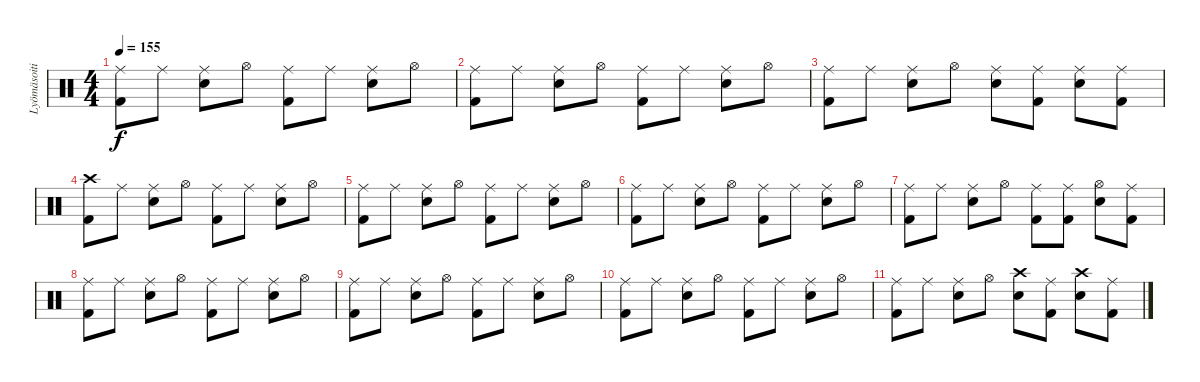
\track ("Lyömäsoitin" "Lyömäsoiti") {instrument percussion}
\staff {score}
\articulation defaults
\ts (4 4)
\tempo 155
\clef neutral
\ks c
("Ride (middle)" "Kick (hit) 2").8{dy f} "Ride (middle)".8 ("Ride (middle)" "Snare (hit) 2").8 "Hi-Hat (open)".8 ("Ride (middle)" "Kick (hit) 2").8 "Ride (middle)".8 ("Ride (middle)" "Snare (hit) 2").8 "Hi-Hat (open)".8 |
("Ride (middle)" "Kick (hit) 2").8 "Ride (middle)".8 ("Ride (middle)" "Snare (hit) 2").8 "Hi-Hat (open)".8 ("Ride (middle)" "Kick (hit) 2").8 "Ride (middle)".8 ("Ride (middle)" "Snare (hit) 2").8 "Hi-Hat (open)".8 |
("Ride (middle)" "Kick (hit) 2").8 "Ride (middle)".8 ("Ride (middle)" "Snare (hit) 2").8 "Hi-Hat (open)".8 ("Ride (middle)" "Snare (hit) 2").8 ("Ride (middle)" "Kick (hit) 2").8 ("Ride (middle)" "Snare (hit) 2").8 ("Ride (middle)" "Kick (hit) 2").8 |
("Crash high (hit)" "Kick (hit) 2").8 "Ride (middle)".8 ("Ride (middle)" "Snare (hit) 2").8 "Hi-Hat (open)".8 ("Ride (middle)" "Kick (hit) 2").8 "Ride (middle)".8 ("Ride (middle)" "Snare (hit) 2").8 "Hi-Hat (open)".8 |
("Ride (middle)" "Kick (hit) 2").8 "Ride (middle)".8 ("Ride (middle)" "Snare (hit) 2").8 "Hi-Hat (open)".8 ("Ride (middle)" "Kick (hit) 2").8 "Ride (middle)".8 ("Ride (middle)" "Snare (hit) 2").8 "Hi-Hat (open)".8 |
("Ride (middle)" "Kick (hit) 2").8 "Ride (middle)".8 ("Ride (middle)" "Snare (hit) 2").8 "Hi-Hat (open)".8 ("Ride (middle)" "Kick (hit) 2").8 "Ride (middle)".8 ("Ride (middle)" "Snare (hit) 2").8 "Hi-Hat (open)".8 |
("Ride (middle)" "Kick (hit) 2").8 "Ride (middle)".8 ("Ride (middle)" "Snare (hit) 2").8 "Hi-Hat (open)".8 ("Ride (middle)" "Kick (hit) 2").8 ("Ride (middle)" "Kick (hit) 2").8 ("Hi-Hat (open)" "Snare (hit) 2").8 ("Ride (middle)" "Kick (hit) 2").8 |
("Ride (middle)" "Kick (hit) 2").8 "Ride (middle)".8 ("Ride (middle)" "Snare (hit) 2").8 "Hi-Hat (open)".8 ("Ride (middle)" "Kick (hit) 2").8 "Ride (middle)".8 ("Ride (middle)" "Snare (hit) 2").8 "Hi-Hat (open)".8 |
("Ride (middle)" "Kick (hit) 2").8 "Ride (middle)".8 ("Ride (middle)" "Snare (hit) 2").8 "Hi-Hat (open)".8 ("Ride (middle)" "Kick (hit) 2").8 "Ride (middle)".8 ("Ride (middle)" "Snare (hit) 2").8 "Hi-Hat (open)".8 |
("Ride (middle)" "Kick (hit) 2").8 "Ride (middle)".8 ("Ride (middle)" "Snare (hit) 2").8 "Hi-Hat (open)".8 ("Ride (middle)" "Kick (hit) 2").8 "Ride (middle)".8 ("Ride (middle)" "Snare (hit) 2").8 "Hi-Hat (open)".8 |
("Ride (middle)" "Kick (hit) 2").8 "Ride (middle)".8 ("Ride (middle)" "Snare (hit) 2").8 "Hi-Hat (open)".8 ("Crash high (hit)" "Snare (hit) 2").8 ("Ride (middle)" "Kick (hit) 2").8 ("Crash high (hit)" "Snare (hit) 2").8 ("Ride (middle)" "Kick (hit) 2").8
